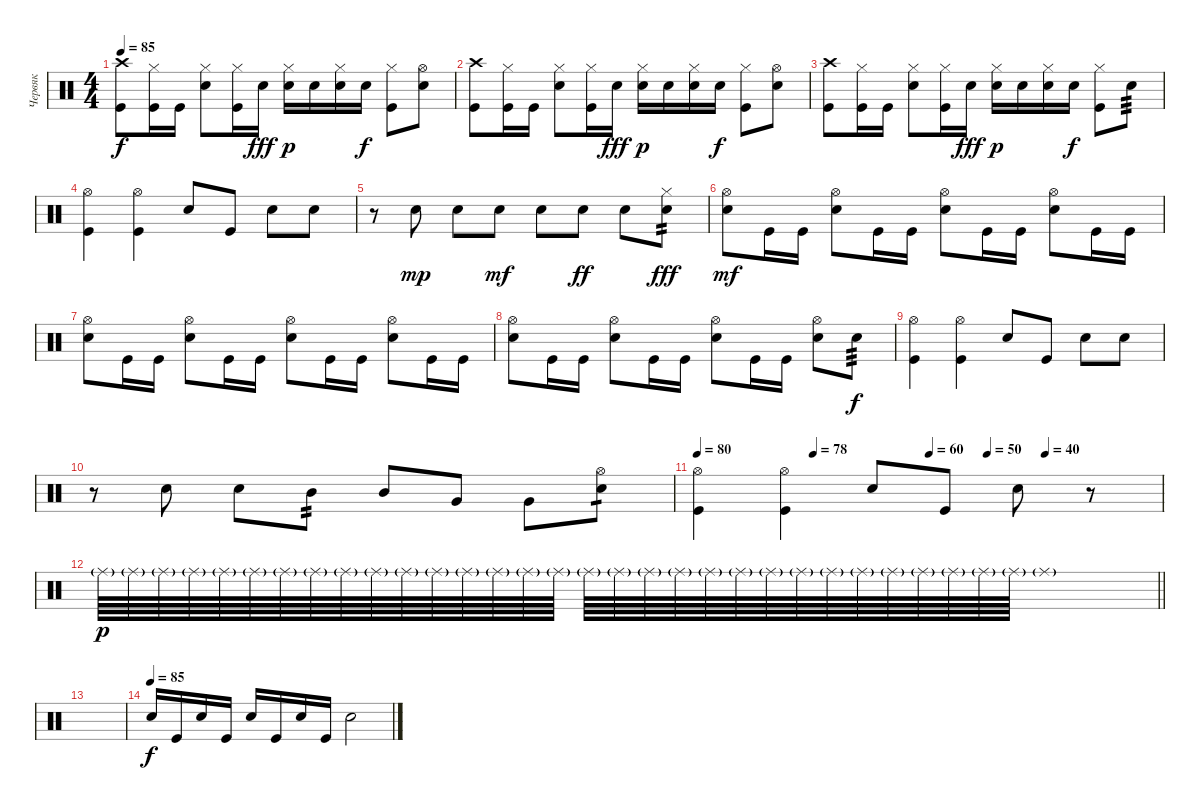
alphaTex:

\track ("Червяк" "Червяк") {instrument percussion}
\staff {score}
\articulation defaults
\ts (4 4)
\tempo 85
\clef neutral
\ks c
("Crash high (hit)" "Kick (hit)").8{dy f} ("Hi-Hat (closed)" "Kick (hit)").16 "Kick (hit)".16 ("Hi-Hat (closed)" "Electric Snare (hit)").8 ("Hi-Hat (closed)" "Kick (hit)").16 "Snare (hit) 2".16{dy fff} ("Hi-Hat (closed)" "Snare (hit) 2").16{dy p} "Snare (hit) 2".16 ("Hi-Hat (closed)" "Snare (hit) 2").16 "Snare (hit) 2".16{dy f} ("Hi-Hat (closed)" "Kick (hit)").8 ("Hi-Hat (open)" "Electric Snare (hit)").8 |
("Crash high (hit)" "Kick (hit)").8 ("Hi-Hat (closed)" "Kick (hit)").16 "Kick (hit)".16 ("Hi-Hat (closed)" "Electric Snare (hit)").8 ("Hi-Hat (closed)" "Kick (hit)").16 "Snare (hit) 2".16{dy fff} ("Hi-Hat (closed)" "Snare (hit) 2").16{dy p} "Snare (hit) 2".16 ("Hi-Hat (closed)" "Snare (hit) 2").16 "Snare (hit) 2".16{dy f} ("Hi-Hat (closed)" "Kick (hit)").8 ("Hi-Hat (open)" "Electric Snare (hit)").8 |
("Crash high (hit)" "Kick (hit)").8 ("Hi-Hat (closed)" "Kick (hit)").16 "Kick (hit)".16 ("Hi-Hat (closed)" "Electric Snare (hit)").8 ("Hi-Hat (closed)" "Kick (hit)").16 "Snare (hit) 2".16{dy fff} ("Hi-Hat (closed)" "Snare (hit) 2").16{dy p} "Snare (hit) 2".16 ("Hi-Hat (closed)" "Snare (hit) 2").16 "Snare (hit) 2".16{dy f} ("Hi-Hat (closed)" "Kick (hit)").8 "Electric Snare (hit)".8{tp 3} |
("Hi-Hat (open)" "Kick (hit)").4 ("Hi-Hat (open)" "Kick (hit)").4 "Electric Snare (hit)".8 "Kick (hit)".8 "Electric Snare (hit)".8 "Electric Snare (hit)".8 |
r.8 "Electric Snare (hit)".8{dy mp} "Electric Snare (hit)".8 "Electric Snare (hit)".8{dy mf} "Electric Snare (hit)".8 "Electric Snare (hit)".8{dy ff} "Electric Snare (hit)".8 ("Hi-Hat (closed)" "Electric Snare (hit)").8{tp 2 dy fff} |
("Hi-Hat (open)" "Electric Snare (hit)").8{dy mf} "Kick (hit)".16 "Kick (hit)".16 ("Hi-Hat (open)" "Electric Snare (hit)").8 "Kick (hit)".16 "Kick (hit)".16 ("Hi-Hat (open)" "Electric Snare (hit)").8 "Kick (hit)".16 "Kick (hit)".16 ("Hi-Hat (open)" "Electric Snare (hit)").8 "Kick (hit)".16 "Kick (hit)".16 |
("Hi-Hat (open)" "Electric Snare (hit)").8 "Kick (hit)".16 "Kick (hit)".16 ("Hi-Hat (open)" "Electric Snare (hit)").8 "Kick (hit)".16 "Kick (hit)".16 ("Hi-Hat (open)" "Electric Snare (hit)").8 "Kick (hit)".16 "Kick (hit)".16 ("Hi-Hat (open)" "Electric Snare (hit)").8 "Kick (hit)".16 "Kick (hit)".16 |
("Hi-Hat (open)" "Electric Snare (hit)").8 "Kick (hit)".16 "Kick (hit)".16 ("Hi-Hat (open)" "Electric Snare (hit)").8 "Kick (hit)".16 "Kick (hit)".16 ("Hi-Hat (open)" "Electric Snare (hit)").8 "Kick (hit)".16 "Kick (hit)".16 ("Hi-Hat (open)" "Electric Snare (hit)").8 "Electric Snare (hit)".8{tp 3 dy f} |
("Hi-Hat (open)" "Kick (hit)").4 ("Hi-Hat (open)" "Kick (hit)").4 "Electric Snare (hit)".8 "Kick (hit)".8 "Electric Snare (hit)".8 "Electric Snare (hit)".8 |
r.8 "Electric Snare (hit)".8 "Electric Snare (hit)".8 "Mid Tom (hit)".8{tp 2} "Mid Tom (hit)".8 "Very Low Tom (hit)".8 "Very Low Tom (hit)".8 ("Hi-Hat (open)" "Electric Snare (hit)").8{tp 1} |
\tempo 80
\tempo (78 0.25)
\tempo (60 0.5)
\tempo (50 0.625)
\tempo (40 0.75)
("Hi-Hat (open)" "Kick (hit)").4 ("Hi-Hat (open)" "Kick (hit)").4 "Electric Snare (hit)".8 "Kick (hit)".8 "Electric Snare (hit)".8 r.8 |
\barLineRight lightlight "Ride (middle)"{g}.64{dy p} "Ride (middle)"{g}.64 "Ride (middle)"{g}.64 "Ride (middle)"{g}.64 "Ride (middle)"{g}.64 "Ride (middle)"{g}.64 "Ride (middle)"{g}.64 "Ride (middle)"{g}.64 "Ride (middle)"{g}.64 "Ride (middle)"{g}.64 "Ride (middle)"{g}.64 "Ride (middle)"{g}.64 "Ride (middle)"{g}.64 "Ride (middle)"{g}.64 "Ride (middle)"{g}.64 "Ride (middle)"{g}.64 "Ride (middle)"{g}.64 "Ride (middle)"{g}.64 "Ride (middle)"{g}.64 "Ride (middle)"{g}.64 "Ride (middle)"{g}.64 "Ride (middle)"{g}.64 "Ride (middle)"{g}.64 "Ride (middle)"{g}.64 "Ride (middle)"{g}.64 "Ride (middle)"{g}.64 "Ride (middle)"{g}.64 "Ride (middle)"{g}.64 "Ride (middle)"{g}.64 "Ride (middle)"{g}.64 "Ride (middle)"{g}.64 "Ride (middle)"{g}.1
|
|
\tempo 180
\tempo (85)
"Electric Snare (hit)".16{dy f} "Kick (hit)".16 "Electric Snare (hit)".16 "Kick (hit)".16 "Electric Snare (hit)".16 "Kick (hit)".16 "Electric Snare (hit)".16 "Kick (hit)".16 "Electric Snare (hit)".2
